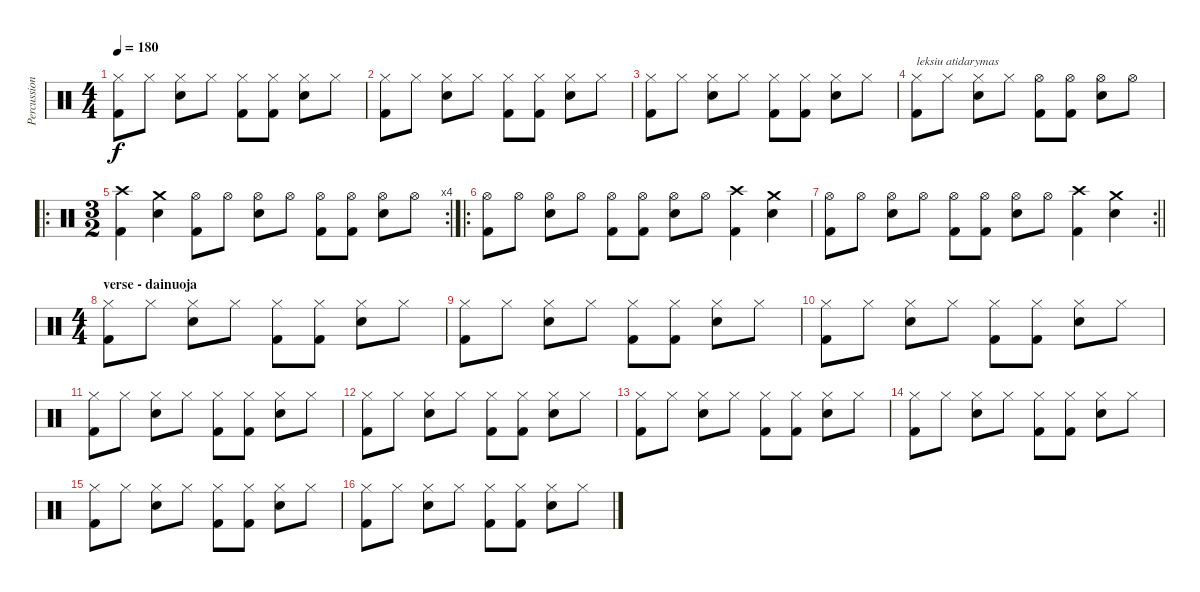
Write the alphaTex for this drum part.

\track ("Percussion" "Percussion") {instrument percussion}
\staff {score}
\articulation defaults
\ts (4 4)
\tempo 180
\clef neutral
\ks c
("Hi-Hat (closed)" "Kick (hit) 2").8{dy f} "Hi-Hat (closed)".8 ("Hi-Hat (closed)" "Snare (hit) 2").8 "Hi-Hat (closed)".8 ("Hi-Hat (closed)" "Kick (hit) 2").8 ("Hi-Hat (closed)" "Kick (hit) 2").8 ("Hi-Hat (closed)" "Snare (hit) 2").8 "Hi-Hat (closed)".8 |
("Hi-Hat (closed)" "Kick (hit) 2").8 "Hi-Hat (closed)".8 ("Hi-Hat (closed)" "Snare (hit) 2").8 "Hi-Hat (closed)".8 ("Hi-Hat (closed)" "Kick (hit) 2").8 ("Hi-Hat (closed)" "Kick (hit) 2").8 ("Hi-Hat (closed)" "Snare (hit) 2").8 "Hi-Hat (closed)".8 |
("Hi-Hat (closed)" "Kick (hit) 2").8 "Hi-Hat (closed)".8 ("Hi-Hat (closed)" "Snare (hit) 2").8 "Hi-Hat (closed)".8 ("Hi-Hat (closed)" "Kick (hit) 2").8 ("Hi-Hat (closed)" "Kick (hit) 2").8 ("Hi-Hat (closed)" "Snare (hit) 2").8 "Hi-Hat (closed)".8 |
("Hi-Hat (closed)" "Kick (hit) 2").8{txt "leksiu atidarymas"} "Hi-Hat (closed)".8 ("Hi-Hat (closed)" "Snare (hit) 2").8 "Hi-Hat (closed)".8 ("Hi-Hat (open)" "Kick (hit) 2").8 ("Hi-Hat (open)" "Kick (hit) 2").8 ("Hi-Hat (open)" "Snare (hit) 2").8 "Hi-Hat (open)".8 |
\ro
\rc 4
\ts (3 2)
("Crash high (hit)" "Kick (hit) 2").4 ("Crash medium (hit)" "Snare (hit) 2").4 ("Hi-Hat (open)" "Kick (hit) 2").8 "Hi-Hat (open)".8 ("Hi-Hat (open)" "Snare (hit) 2").8 "Hi-Hat (open)".8 ("Hi-Hat (open)" "Kick (hit) 2").8 ("Hi-Hat (open)" "Kick (hit) 2").8 ("Hi-Hat (open)" "Snare (hit) 2").8 "Hi-Hat (open)".8 |
\ro
("Hi-Hat (open)" "Kick (hit) 2").8 "Hi-Hat (open)".8 ("Hi-Hat (open)" "Snare (hit) 2").8 "Hi-Hat (open)".8 ("Hi-Hat (open)" "Kick (hit) 2").8 ("Hi-Hat (open)" "Kick (hit) 2").8 ("Hi-Hat (open)" "Snare (hit) 2").8 "Hi-Hat (open)".8 ("Crash high (hit)" "Kick (hit) 2").4 ("Crash medium (hit)" "Snare (hit) 2").4 |
\rc 2
\barLineRight lightlight
("Hi-Hat (open)" "Kick (hit) 2").8 "Hi-Hat (open)".8 ("Hi-Hat (open)" "Snare (hit) 2").8 "Hi-Hat (open)".8 ("Hi-Hat (open)" "Kick (hit) 2").8 ("Hi-Hat (open)" "Kick (hit) 2").8 ("Hi-Hat (open)" "Snare (hit) 2").8 "Hi-Hat (open)".8 ("Crash high (hit)" "Kick (hit) 2").4 ("Crash medium (hit)" "Snare (hit) 2").4 |
\ts (4 4)
\section ("" "verse - dainuoja")
("Hi-Hat (closed)" "Kick (hit) 2").8 "Hi-Hat (closed)".8 ("Hi-Hat (closed)" "Snare (hit) 2").8 "Hi-Hat (closed)".8 ("Hi-Hat (closed)" "Kick (hit) 2").8 ("Hi-Hat (closed)" "Kick (hit) 2").8 ("Hi-Hat (closed)" "Snare (hit) 2").8 "Hi-Hat (closed)".8 |
("Hi-Hat (closed)" "Kick (hit) 2").8 "Hi-Hat (closed)".8 ("Hi-Hat (closed)" "Snare (hit) 2").8 "Hi-Hat (closed)".8 ("Hi-Hat (closed)" "Kick (hit) 2").8 ("Hi-Hat (closed)" "Kick (hit) 2").8 ("Hi-Hat (closed)" "Snare (hit) 2").8 "Hi-Hat (closed)".8 |
("Hi-Hat (closed)" "Kick (hit) 2").8 "Hi-Hat (closed)".8 ("Hi-Hat (closed)" "Snare (hit) 2").8 "Hi-Hat (closed)".8 ("Hi-Hat (closed)" "Kick (hit) 2").8 ("Hi-Hat (closed)" "Kick (hit) 2").8 ("Hi-Hat (closed)" "Snare (hit) 2").8 "Hi-Hat (closed)".8 |
("Hi-Hat (closed)" "Kick (hit) 2").8 "Hi-Hat (closed)".8 ("Hi-Hat (closed)" "Snare (hit) 2").8 "Hi-Hat (closed)".8 ("Hi-Hat (closed)" "Kick (hit) 2").8 ("Hi-Hat (closed)" "Kick (hit) 2").8 ("Hi-Hat (closed)" "Snare (hit) 2").8 "Hi-Hat (closed)".8 |
("Hi-Hat (closed)" "Kick (hit) 2").8 "Hi-Hat (closed)".8 ("Hi-Hat (closed)" "Snare (hit) 2").8 "Hi-Hat (closed)".8 ("Hi-Hat (closed)" "Kick (hit) 2").8 ("Hi-Hat (closed)" "Kick (hit) 2").8 ("Hi-Hat (closed)" "Snare (hit) 2").8 "Hi-Hat (closed)".8 |
("Hi-Hat (closed)" "Kick (hit) 2").8 "Hi-Hat (closed)".8 ("Hi-Hat (closed)" "Snare (hit) 2").8 "Hi-Hat (closed)".8 ("Hi-Hat (closed)" "Kick (hit) 2").8 ("Hi-Hat (closed)" "Kick (hit) 2").8 ("Hi-Hat (closed)" "Snare (hit) 2").8 "Hi-Hat (closed)".8 |
("Hi-Hat (closed)" "Kick (hit) 2").8 "Hi-Hat (closed)".8 ("Hi-Hat (closed)" "Snare (hit) 2").8 "Hi-Hat (closed)".8 ("Hi-Hat (closed)" "Kick (hit) 2").8 ("Hi-Hat (closed)" "Kick (hit) 2").8 ("Hi-Hat (closed)" "Snare (hit) 2").8 "Hi-Hat (closed)".8 |
("Hi-Hat (closed)" "Kick (hit) 2").8 "Hi-Hat (closed)".8 ("Hi-Hat (closed)" "Snare (hit) 2").8 "Hi-Hat (closed)".8 ("Hi-Hat (closed)" "Kick (hit) 2").8 ("Hi-Hat (closed)" "Kick (hit) 2").8 ("Hi-Hat (closed)" "Snare (hit) 2").8 "Hi-Hat (closed)".8 |
("Hi-Hat (closed)" "Kick (hit) 2").8 "Hi-Hat (closed)".8 ("Hi-Hat (closed)" "Snare (hit) 2").8 "Hi-Hat (closed)".8 ("Hi-Hat (closed)" "Kick (hit) 2").8 ("Hi-Hat (closed)" "Kick (hit) 2").8 ("Hi-Hat (closed)" "Snare (hit) 2").8 "Hi-Hat (closed)".8
